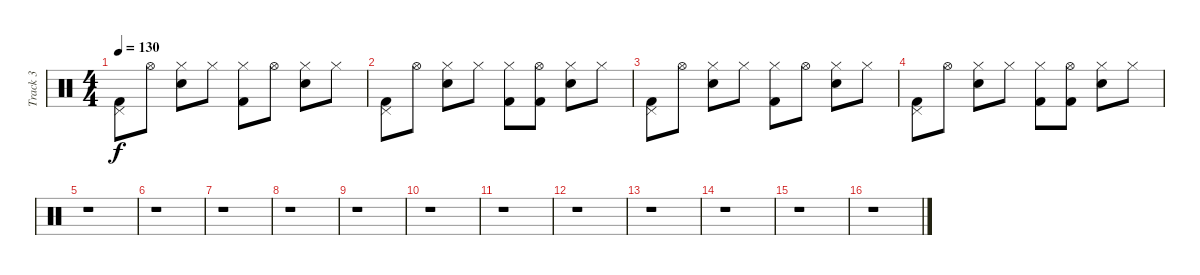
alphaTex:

\track ("Track 3" "Track 3") {instrument percussion}
\staff {score}
\articulation defaults
\ts (4 4)
\tempo 130
\clef neutral
\ks c
("Pedal Hi-Hat (hit)" "Kick (hit) 2").8{dy f} "Hi-Hat (open)".8 ("Hi-Hat (closed)" "Snare (hit) 2").8 "Hi-Hat (closed)".8 ("Hi-Hat (closed)" "Kick (hit) 2").8 "Hi-Hat (open)".8 ("Hi-Hat (closed)" "Snare (hit) 2").8 "Hi-Hat (closed)".8 |
("Pedal Hi-Hat (hit)" "Kick (hit) 2").8 "Hi-Hat (open)".8 ("Hi-Hat (closed)" "Snare (hit) 2").8 "Hi-Hat (closed)".8 ("Hi-Hat (closed)" "Kick (hit) 2").8 ("Hi-Hat (open)" "Kick (hit) 2").8 ("Hi-Hat (closed)" "Snare (hit) 2").8 "Hi-Hat (closed)".8 |
("Pedal Hi-Hat (hit)" "Kick (hit) 2").8 "Hi-Hat (open)".8 ("Hi-Hat (closed)" "Snare (hit) 2").8 "Hi-Hat (closed)".8 ("Hi-Hat (closed)" "Kick (hit) 2").8 "Hi-Hat (open)".8 ("Hi-Hat (closed)" "Snare (hit) 2").8 "Hi-Hat (closed)".8 |
("Pedal Hi-Hat (hit)" "Kick (hit) 2").8 "Hi-Hat (open)".8 ("Hi-Hat (closed)" "Snare (hit) 2").8 "Hi-Hat (closed)".8 ("Hi-Hat (closed)" "Kick (hit) 2").8 ("Hi-Hat (open)" "Kick (hit) 2").8 ("Hi-Hat (closed)" "Snare (hit) 2").8 "Hi-Hat (closed)".8 |
r.1 |
r.1 |
r.1 |
r.1 |
r.1 |
r.1 |
r.1 |
r.1 |
r.1 |
r.1 |
r.1 |
r.1
